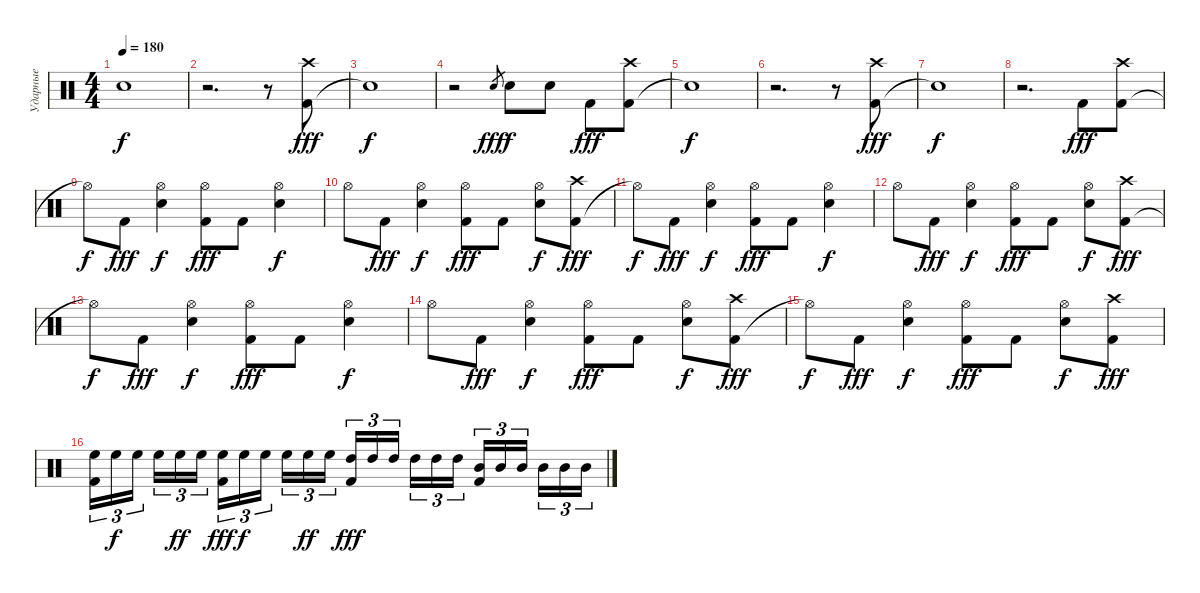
\track ("Ударные" "Ударные") {instrument percussion}
\staff
\articulation defaults
\ts (4 4)
\tempo 180
\clef neutral
\ks c "Snare (hit)"{t}.1{dy f}
|
r.2{d} r.8 ("Kick (hit) 2" "Crash high (hit)").8{dy fff} |
"Snare (hit)"{t}.1{dy f} |
r.2 "Snare (hit) 2".8{gr dy fff} "Snare (hit) 2".8{dy f} "Snare (hit) 2".8 "Kick (hit) 2".8{dy fff} ("Kick (hit) 2" "Crash high (hit)").8 |
"Snare (hit)"{t}.1{dy f} |
r.2{d} r.8 ("Kick (hit) 2" "Crash high (hit)").8{dy fff} |
"Snare (hit)"{t}.1{dy f} |
r.2{d} "Kick (hit) 2".8{dy fff} ("Kick (hit) 2" "Crash high (hit)").8 |
"Hi-Hat (open)"{t}.8{dy f} "Kick (hit) 2".8{dy fff} ("Snare (hit) 2" "Hi-Hat (open)").4{dy f} ("Kick (hit) 2" "Hi-Hat (open)").8{dy fff} "Kick (hit) 2".8 ("Snare (hit) 2" "Hi-Hat (open)").4{dy f} |
"Hi-Hat (open)".8 "Kick (hit) 2".8{dy fff} ("Snare (hit) 2" "Hi-Hat (open)").4{dy f} ("Kick (hit) 2" "Hi-Hat (open)").8{dy fff} "Kick (hit) 2".8 ("Snare (hit) 2" "Hi-Hat (open)").8{dy f} ("Kick (hit) 2" "Crash high (hit)").8{dy fff} |
"Hi-Hat (open)"{t}.8{dy f} "Kick (hit) 2".8{dy fff} ("Snare (hit) 2" "Hi-Hat (open)").4{dy f} ("Kick (hit) 2" "Hi-Hat (open)").8{dy fff} "Kick (hit) 2".8 ("Snare (hit) 2" "Hi-Hat (open)").4{dy f} |
"Hi-Hat (open)".8 "Kick (hit) 2".8{dy fff} ("Snare (hit) 2" "Hi-Hat (open)").4{dy f} ("Kick (hit) 2" "Hi-Hat (open)").8{dy fff} "Kick (hit) 2".8 ("Snare (hit) 2" "Hi-Hat (open)").8{dy f} ("Kick (hit) 2" "Crash high (hit)").8{dy fff} |
"Hi-Hat (open)"{t}.8{dy f} "Kick (hit) 2".8{dy fff} ("Snare (hit) 2" "Hi-Hat (open)").4{dy f} ("Kick (hit) 2" "Hi-Hat (open)").8{dy fff} "Kick (hit) 2".8 ("Snare (hit) 2" "Hi-Hat (open)").4{dy f} |
"Hi-Hat (open)".8 "Kick (hit) 2".8{dy fff} ("Snare (hit) 2" "Hi-Hat (open)").4{dy f} ("Kick (hit) 2" "Hi-Hat (open)").8{dy fff} "Kick (hit) 2".8 ("Snare (hit) 2" "Hi-Hat (open)").8{dy f} ("Kick (hit) 2" "Crash high (hit)").8{dy fff} |
"Hi-Hat (open)"{t}.8{dy f} "Kick (hit) 2".8{dy fff} ("Snare (hit) 2" "Hi-Hat (open)").4{dy f} ("Kick (hit) 2" "Hi-Hat (open)").8{dy fff} "Kick (hit) 2".8 ("Snare (hit) 2" "Hi-Hat (open)").8{dy f} ("Kick (hit) 2" "Crash high (hit)").8{dy fff} |
("Kick (hit) 2" "High Floor Tom (hit)").16{tu (3 2)} "High Floor Tom (hit)".16{tu (3 2) dy f} "High Floor Tom (hit)".16{tu (3 2) beam splitsecondary} "High Floor Tom (hit)".16{tu (3 2)} "High Floor Tom (hit)".16{tu (3 2) dy ff} "High Floor Tom (hit)".16{tu (3 2)} ("Kick (hit) 2" "High Floor Tom (hit)").16{tu (3 2) dy fff} "High Floor Tom (hit)".16{tu (3 2) dy f} "High Floor Tom (hit)".16{tu (3 2) beam splitsecondary} "High Floor Tom (hit)".16{tu (3 2)} "High Floor Tom (hit)".16{tu (3 2) dy ff} "High Floor Tom (hit)".16{tu (3 2)} ("Kick (hit) 2" "High Tom (hit)").16{tu (3 2) dy fff} "High Tom (hit)".16{tu (3 2)} "High Tom (hit)".16{tu (3 2) beam splitsecondary} "High Tom (hit)".16{tu (3 2)} "High Tom (hit)".16{tu (3 2)} "High Tom (hit)".16{tu (3 2)} ("Kick (hit) 2" "Mid Tom (hit)").16{tu (3 2)} "Mid Tom (hit)".16{tu (3 2)} "Mid Tom (hit)".16{tu (3 2) beam splitsecondary} "Mid Tom (hit)".16{tu (3 2)} "Mid Tom (hit)".16{tu (3 2)} "Mid Tom (hit)".16{tu (3 2)}
